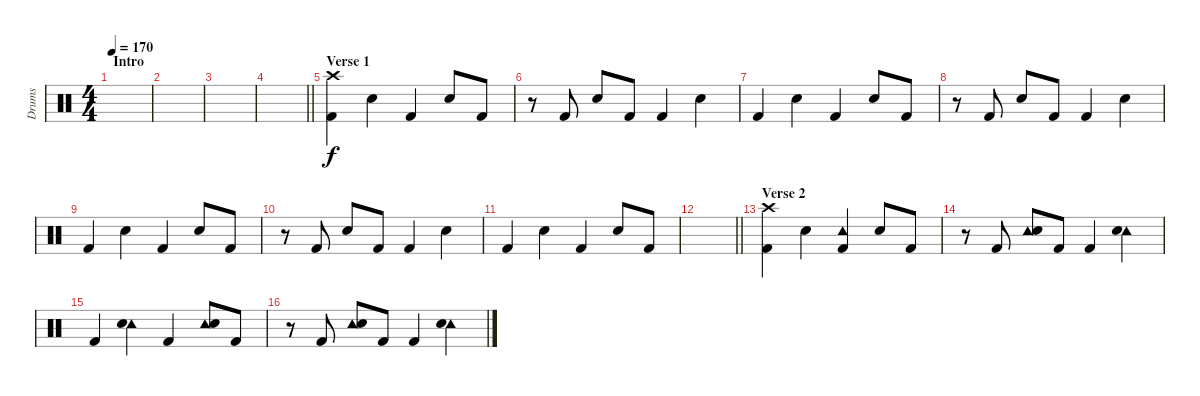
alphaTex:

\track ("Drums" "Drums") {instrument percussion}
\staff {score}
\articulation defaults
\ts (4 4)
\section ("" "Intro")
\tempo 170
\clef neutral
\ks c
|
|
|
\barLineRight lightlight
|
\section ("" "Verse 1")
("Crash high (hit)" "Kick (hit) 2").4 "Electric Snare (hit)".4 "Kick (hit) 2".4 "Electric Snare (hit)".8 "Kick (hit) 2".8 |
r.8 "Kick (hit) 2".8 "Electric Snare (hit)".8 "Kick (hit) 2".8 "Kick (hit) 2".4 "Electric Snare (hit)".4 |
"Kick (hit) 2".4 "Electric Snare (hit)".4 "Kick (hit) 2".4 "Electric Snare (hit)".8 "Kick (hit) 2".8 |
r.8 "Kick (hit) 2".8 "Electric Snare (hit)".8 "Kick (hit) 2".8 "Kick (hit) 2".4 "Electric Snare (hit)".4 |
"Kick (hit) 2".4 "Electric Snare (hit)".4 "Kick (hit) 2".4 "Electric Snare (hit)".8 "Kick (hit) 2".8 |
r.8 "Kick (hit) 2".8 "Electric Snare (hit)".8 "Kick (hit) 2".8 "Kick (hit) 2".4 "Electric Snare (hit)".4 |
"Kick (hit) 2".4 "Electric Snare (hit)".4 "Kick (hit) 2".4 "Electric Snare (hit)".8 "Kick (hit) 2".8 |
\barLineRight lightlight
|
\section ("" "Verse 2")
("Crash high (hit)" "Kick (hit) 2").4 "Electric Snare (hit)".4 ("Tambourine (hit)" "Kick (hit) 2").4 "Electric Snare (hit)".8 "Kick (hit) 2".8 |
r.8 "Kick (hit) 2".8 ("Tambourine (hit)" "Electric Snare (hit)").8 "Kick (hit) 2".8 "Kick (hit) 2".4 ("Tambourine (hit)" "Electric Snare (hit)").4 |
"Kick (hit) 2".4 ("Tambourine (hit)" "Electric Snare (hit)").4 "Kick (hit) 2".4 ("Tambourine (hit)" "Electric Snare (hit)").8 "Kick (hit) 2".8 |
r.8 "Kick (hit) 2".8 ("Tambourine (hit)" "Electric Snare (hit)").8 "Kick (hit) 2".8 "Kick (hit) 2".4 ("Tambourine (hit)" "Electric Snare (hit)").4
